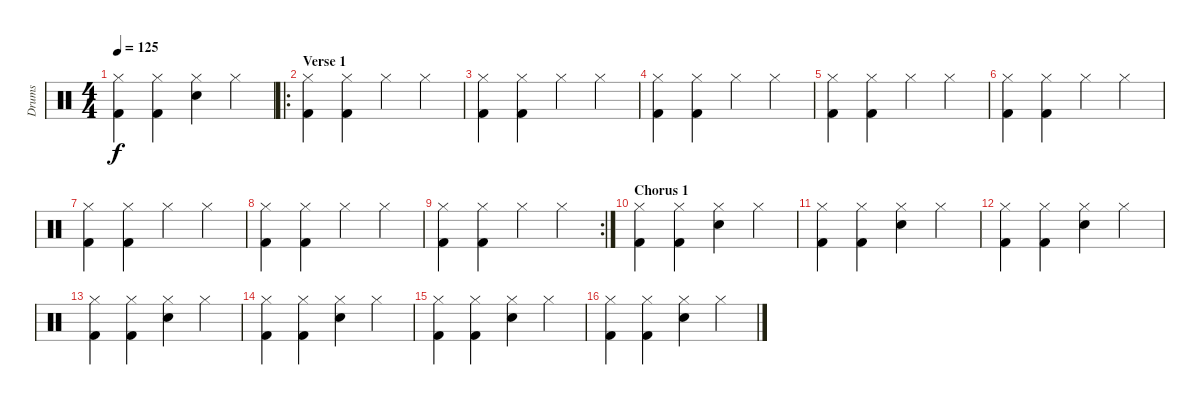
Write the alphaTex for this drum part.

\track ("Drums" "Drums") {instrument percussion}
\staff {score}
\articulation defaults
\ts (4 4)
\tempo 125
\clef neutral
\ks c
("Hi-Hat (closed)" "Kick (hit) 2").4{dy f} ("Hi-Hat (closed)" "Kick (hit) 2").4 ("Hi-Hat (closed)" "Snare (hit) 2").4 "Hi-Hat (closed)".4 |
\ro
\section ("" "Verse 1")
("Hi-Hat (closed)" "Kick (hit) 2").4 ("Hi-Hat (closed)" "Kick (hit) 2").4 "Hi-Hat (closed)".4 "Hi-Hat (closed)".4 |
("Hi-Hat (closed)" "Kick (hit) 2").4 ("Hi-Hat (closed)" "Kick (hit) 2").4 "Hi-Hat (closed)".4 "Hi-Hat (closed)".4 |
("Hi-Hat (closed)" "Kick (hit) 2").4 ("Hi-Hat (closed)" "Kick (hit) 2").4 "Hi-Hat (closed)".4 "Hi-Hat (closed)".4 |
("Hi-Hat (closed)" "Kick (hit) 2").4 ("Hi-Hat (closed)" "Kick (hit) 2").4 "Hi-Hat (closed)".4 "Hi-Hat (closed)".4 |
("Hi-Hat (closed)" "Kick (hit) 2").4 ("Hi-Hat (closed)" "Kick (hit) 2").4 "Hi-Hat (closed)".4 "Hi-Hat (closed)".4 |
("Hi-Hat (closed)" "Kick (hit) 2").4 ("Hi-Hat (closed)" "Kick (hit) 2").4 "Hi-Hat (closed)".4 "Hi-Hat (closed)".4 |
("Hi-Hat (closed)" "Kick (hit) 2").4 ("Hi-Hat (closed)" "Kick (hit) 2").4 "Hi-Hat (closed)".4 "Hi-Hat (closed)".4 |
\rc 2
("Hi-Hat (closed)" "Kick (hit) 2").4 ("Hi-Hat (closed)" "Kick (hit) 2").4 "Hi-Hat (closed)".4 "Hi-Hat (closed)".4 |
\section ("" "Chorus 1")
("Hi-Hat (closed)" "Kick (hit) 2").4 ("Hi-Hat (closed)" "Kick (hit) 2").4 ("Hi-Hat (closed)" "Snare (hit) 2").4 "Hi-Hat (closed)".4 |
("Hi-Hat (closed)" "Kick (hit) 2").4 ("Hi-Hat (closed)" "Kick (hit) 2").4 ("Hi-Hat (closed)" "Snare (hit) 2").4 "Hi-Hat (closed)".4 |
("Hi-Hat (closed)" "Kick (hit) 2").4 ("Hi-Hat (closed)" "Kick (hit) 2").4 ("Hi-Hat (closed)" "Snare (hit) 2").4 "Hi-Hat (closed)".4 |
("Hi-Hat (closed)" "Kick (hit) 2").4 ("Hi-Hat (closed)" "Kick (hit) 2").4 ("Hi-Hat (closed)" "Snare (hit) 2").4 "Hi-Hat (closed)".4 |
("Hi-Hat (closed)" "Kick (hit) 2").4 ("Hi-Hat (closed)" "Kick (hit) 2").4 ("Hi-Hat (closed)" "Snare (hit) 2").4 "Hi-Hat (closed)".4 |
("Hi-Hat (closed)" "Kick (hit) 2").4 ("Hi-Hat (closed)" "Kick (hit) 2").4 ("Hi-Hat (closed)" "Snare (hit) 2").4 "Hi-Hat (closed)".4 |
("Hi-Hat (closed)" "Kick (hit) 2").4 ("Hi-Hat (closed)" "Kick (hit) 2").4 ("Hi-Hat (closed)" "Snare (hit) 2").4 "Hi-Hat (closed)".4
